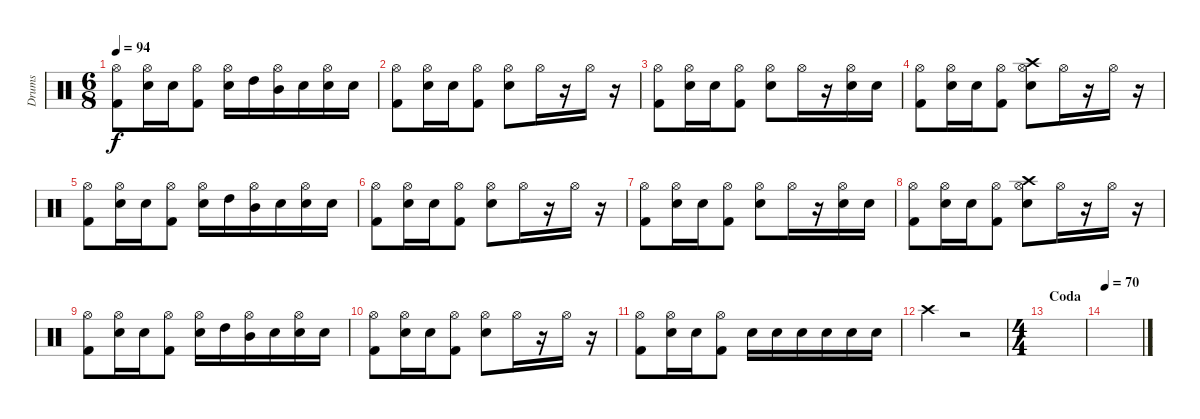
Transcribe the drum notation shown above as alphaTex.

\track ("Drums" "Drums") {instrument percussion}
\staff {score}
\articulation defaults
\ts (6 8)
\tempo 94
\clef neutral
\ks c
("Kick (hit) 2" "Hi-Hat (open)").8{dy f} ("Snare (hit) 2" "Hi-Hat (open)").16 "Snare (hit) 2".16 ("Kick (hit) 2" "Hi-Hat (open)").8 ("Electric Snare (hit)" "Hi-Hat (open)").16 "High Tom (hit)".16 ("Mid Tom (hit)" "Hi-Hat (open)").16 "Electric Snare (hit)".16 ("Snare (hit) 2" "Hi-Hat (open)").16 "Snare (hit) 2".16 |
("Kick (hit) 2" "Hi-Hat (open)").8 ("Snare (hit) 2" "Hi-Hat (open)").16 "Snare (hit) 2".16 ("Kick (hit) 2" "Hi-Hat (open)").8 ("Electric Snare (hit)" "Hi-Hat (open)").8 "Hi-Hat (open)".16 r.16 "Hi-Hat (open)".16 r.16 |
("Kick (hit) 2" "Hi-Hat (open)").8 ("Snare (hit) 2" "Hi-Hat (open)").16 "Snare (hit) 2".16 ("Kick (hit) 2" "Hi-Hat (open)").8 ("Electric Snare (hit)" "Hi-Hat (open)").8 "Hi-Hat (open)".16 r.16 ("Snare (hit) 2" "Hi-Hat (open)").16 "Snare (hit) 2".16 |
("Kick (hit) 2" "Hi-Hat (open)").8 ("Snare (hit) 2" "Hi-Hat (open)").16 "Snare (hit) 2".16 ("Kick (hit) 2" "Hi-Hat (open)").8 ("Electric Snare (hit)" "Crash high (hit)" "Hi-Hat (open)").8 "Hi-Hat (open)".16 r.16 "Hi-Hat (open)".16 r.16 |
("Kick (hit) 2" "Hi-Hat (open)").8 ("Snare (hit) 2" "Hi-Hat (open)").16 "Snare (hit) 2".16 ("Kick (hit) 2" "Hi-Hat (open)").8 ("Electric Snare (hit)" "Hi-Hat (open)").16 "High Tom (hit)".16 ("Mid Tom (hit)" "Hi-Hat (open)").16 "Electric Snare (hit)".16 ("Snare (hit) 2" "Hi-Hat (open)").16 "Snare (hit) 2".16 |
("Kick (hit) 2" "Hi-Hat (open)").8 ("Snare (hit) 2" "Hi-Hat (open)").16 "Snare (hit) 2".16 ("Kick (hit) 2" "Hi-Hat (open)").8 ("Electric Snare (hit)" "Hi-Hat (open)").8 "Hi-Hat (open)".16 r.16 "Hi-Hat (open)".16 r.16 |
("Kick (hit) 2" "Hi-Hat (open)").8 ("Snare (hit) 2" "Hi-Hat (open)").16 "Snare (hit) 2".16 ("Kick (hit) 2" "Hi-Hat (open)").8 ("Electric Snare (hit)" "Hi-Hat (open)").8 "Hi-Hat (open)".16 r.16 ("Snare (hit) 2" "Hi-Hat (open)").16 "Snare (hit) 2".16 |
("Kick (hit) 2" "Hi-Hat (open)").8 ("Snare (hit) 2" "Hi-Hat (open)").16 "Snare (hit) 2".16 ("Kick (hit) 2" "Hi-Hat (open)").8 ("Electric Snare (hit)" "Crash high (hit)" "Hi-Hat (open)").8 "Hi-Hat (open)".16 r.16 "Hi-Hat (open)".16 r.16 |
("Kick (hit) 2" "Hi-Hat (open)").8 ("Snare (hit) 2" "Hi-Hat (open)").16 "Snare (hit) 2".16 ("Kick (hit) 2" "Hi-Hat (open)").8 ("Electric Snare (hit)" "Hi-Hat (open)").16 "High Tom (hit)".16 ("Mid Tom (hit)" "Hi-Hat (open)").16 "Electric Snare (hit)".16 ("Snare (hit) 2" "Hi-Hat (open)").16 "Snare (hit) 2".16 |
("Kick (hit) 2" "Hi-Hat (open)").8 ("Snare (hit) 2" "Hi-Hat (open)").16 "Snare (hit) 2".16 ("Kick (hit) 2" "Hi-Hat (open)").8 ("Electric Snare (hit)" "Hi-Hat (open)").8 "Hi-Hat (open)".16 r.16 "Hi-Hat (open)".16 r.16 |
("Kick (hit) 2" "Hi-Hat (open)").8 ("Snare (hit) 2" "Hi-Hat (open)").16 "Snare (hit) 2".16 ("Kick (hit) 2" "Hi-Hat (open)").8 "Snare (hit) 2".16 "Snare (hit) 2".16 "Snare (hit) 2".16 "Snare (hit) 2".16 "Snare (hit) 2".16 "Snare (hit) 2".16 |
"Crash high (hit)".4 r.2 |
\ts (4 4)
\section ("" "Coda")
|
\tempo 70
